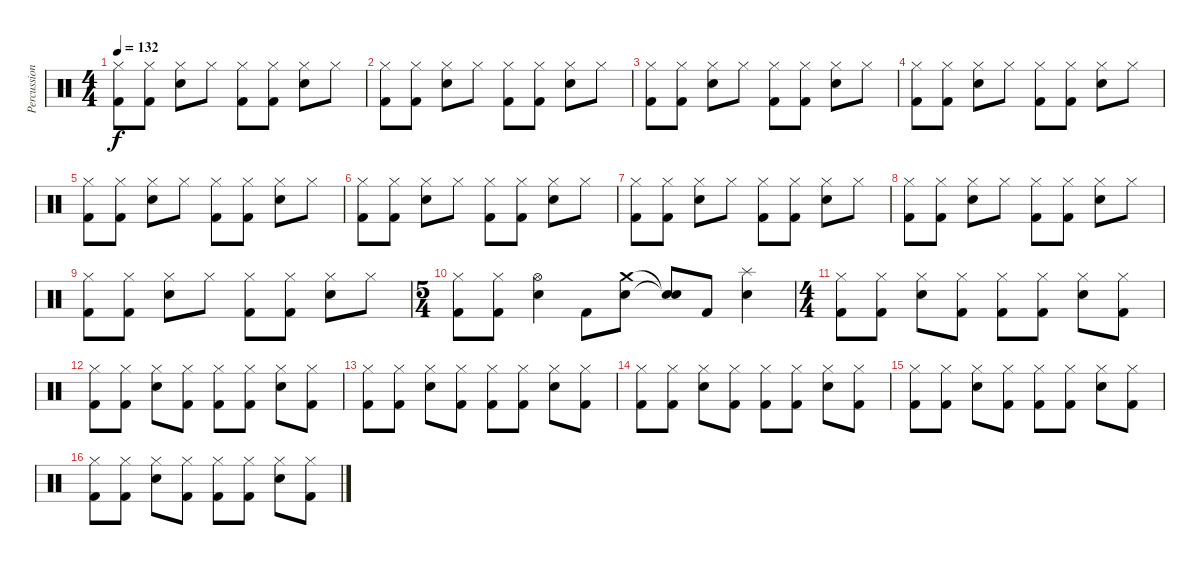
\track ("Percussion" "Percussion") {instrument percussion}
\staff {score}
\articulation defaults
\ts (4 4)
\tempo 132
\clef neutral
\ks c
("Hi-Hat (closed)" "Kick (hit) 2").8{dy f} ("Hi-Hat (closed)" "Kick (hit) 2").8 ("Hi-Hat (closed)" "Metronome (bell)").8 "Hi-Hat (closed)".8 ("Hi-Hat (closed)" "Kick (hit) 2").8 ("Hi-Hat (closed)" "Kick (hit) 2").8 ("Hi-Hat (closed)" "Metronome (bell)").8 "Hi-Hat (closed)".8 |
("Hi-Hat (closed)" "Kick (hit) 2").8 ("Hi-Hat (closed)" "Kick (hit) 2").8 ("Hi-Hat (closed)" "Metronome (bell)").8 "Hi-Hat (closed)".8 ("Hi-Hat (closed)" "Kick (hit) 2").8 ("Hi-Hat (closed)" "Kick (hit) 2").8 ("Hi-Hat (closed)" "Metronome (bell)").8 "Hi-Hat (closed)".8 |
("Hi-Hat (closed)" "Kick (hit) 2").8 ("Hi-Hat (closed)" "Kick (hit) 2").8 ("Hi-Hat (closed)" "Metronome (bell)").8 "Hi-Hat (closed)".8 ("Hi-Hat (closed)" "Kick (hit) 2").8 ("Hi-Hat (closed)" "Kick (hit) 2").8 ("Hi-Hat (closed)" "Metronome (bell)").8 "Hi-Hat (closed)".8 |
("Hi-Hat (closed)" "Kick (hit) 2").8 ("Hi-Hat (closed)" "Kick (hit) 2").8 ("Hi-Hat (closed)" "Metronome (bell)").8 "Hi-Hat (closed)".8 ("Hi-Hat (closed)" "Kick (hit) 2").8 ("Hi-Hat (closed)" "Kick (hit) 2").8 ("Hi-Hat (closed)" "Metronome (bell)").8 "Hi-Hat (closed)".8 |
("Hi-Hat (closed)" "Kick (hit) 2").8 ("Hi-Hat (closed)" "Kick (hit) 2").8 ("Hi-Hat (closed)" "Metronome (bell)").8 "Hi-Hat (closed)".8 ("Hi-Hat (closed)" "Kick (hit) 2").8 ("Hi-Hat (closed)" "Kick (hit) 2").8 ("Hi-Hat (closed)" "Metronome (bell)").8 "Hi-Hat (closed)".8 |
("Hi-Hat (closed)" "Kick (hit) 2").8 ("Hi-Hat (closed)" "Kick (hit) 2").8 ("Hi-Hat (closed)" "Metronome (bell)").8 "Hi-Hat (closed)".8 ("Hi-Hat (closed)" "Kick (hit) 2").8 ("Hi-Hat (closed)" "Kick (hit) 2").8 ("Hi-Hat (closed)" "Metronome (bell)").8 "Hi-Hat (closed)".8 |
("Hi-Hat (closed)" "Kick (hit) 2").8 ("Hi-Hat (closed)" "Kick (hit) 2").8 ("Hi-Hat (closed)" "Metronome (bell)").8 "Hi-Hat (closed)".8 ("Hi-Hat (closed)" "Kick (hit) 2").8 ("Hi-Hat (closed)" "Kick (hit) 2").8 ("Hi-Hat (closed)" "Metronome (bell)").8 "Hi-Hat (closed)".8 |
("Hi-Hat (closed)" "Kick (hit) 2").8 ("Hi-Hat (closed)" "Kick (hit) 2").8 ("Hi-Hat (closed)" "Metronome (bell)").8 "Hi-Hat (closed)".8 ("Hi-Hat (closed)" "Kick (hit) 2").8 ("Hi-Hat (closed)" "Kick (hit) 2").8 ("Hi-Hat (closed)" "Metronome (bell)").8 "Hi-Hat (closed)".8 |
("Hi-Hat (closed)" "Kick (hit) 2").8 ("Hi-Hat (closed)" "Kick (hit) 2").8 ("Hi-Hat (closed)" "Metronome (bell)").8 "Hi-Hat (closed)".8 ("Hi-Hat (closed)" "Kick (hit) 2").8 ("Hi-Hat (closed)" "Kick (hit) 2").8 ("Hi-Hat (closed)" "Metronome (bell)").8 "Hi-Hat (closed)".8 |
\ts (5 4)
("Hi-Hat (closed)" "Kick (hit) 2").8 ("Hi-Hat (closed)" "Kick (hit) 2").8 ("Hi-Hat (open)" "Metronome (bell)").4 "Kick (hit) 2".8 ("Crash medium (hit)" "Metronome (bell)").8 ("Snare (hit)"{t} "Snare (hit)"{t}).8 "Kick (hit) 2".8 ("Splash (hit)" "Metronome (bell)").4 |
\ts (4 4)
("Hi-Hat (closed)" "Kick (hit) 2").8 ("Hi-Hat (closed)" "Kick (hit) 2").8 ("Hi-Hat (closed)" "Metronome (bell)").8 ("Hi-Hat (closed)" "Kick (hit) 2").8 ("Hi-Hat (closed)" "Kick (hit) 2").8 ("Hi-Hat (closed)" "Kick (hit) 2").8 ("Hi-Hat (closed)" "Metronome (bell)").8 ("Hi-Hat (closed)" "Kick (hit) 2").8 |
("Hi-Hat (closed)" "Kick (hit) 2").8 ("Hi-Hat (closed)" "Kick (hit) 2").8 ("Hi-Hat (closed)" "Metronome (bell)").8 ("Hi-Hat (closed)" "Kick (hit) 2").8 ("Hi-Hat (closed)" "Kick (hit) 2").8 ("Hi-Hat (closed)" "Kick (hit) 2").8 ("Hi-Hat (closed)" "Metronome (bell)").8 ("Hi-Hat (closed)" "Kick (hit) 2").8 |
("Hi-Hat (closed)" "Kick (hit) 2").8 ("Hi-Hat (closed)" "Kick (hit) 2").8 ("Hi-Hat (closed)" "Metronome (bell)").8 ("Hi-Hat (closed)" "Kick (hit) 2").8 ("Hi-Hat (closed)" "Kick (hit) 2").8 ("Hi-Hat (closed)" "Kick (hit) 2").8 ("Hi-Hat (closed)" "Metronome (bell)").8 ("Hi-Hat (closed)" "Kick (hit) 2").8 |
("Hi-Hat (closed)" "Kick (hit) 2").8 ("Hi-Hat (closed)" "Kick (hit) 2").8 ("Hi-Hat (closed)" "Metronome (bell)").8 ("Hi-Hat (closed)" "Kick (hit) 2").8 ("Hi-Hat (closed)" "Kick (hit) 2").8 ("Hi-Hat (closed)" "Kick (hit) 2").8 ("Hi-Hat (closed)" "Metronome (bell)").8 ("Hi-Hat (closed)" "Kick (hit) 2").8 |
("Hi-Hat (closed)" "Kick (hit) 2").8 ("Hi-Hat (closed)" "Kick (hit) 2").8 ("Hi-Hat (closed)" "Metronome (bell)").8 ("Hi-Hat (closed)" "Kick (hit) 2").8 ("Hi-Hat (closed)" "Kick (hit) 2").8 ("Hi-Hat (closed)" "Kick (hit) 2").8 ("Hi-Hat (closed)" "Metronome (bell)").8 ("Hi-Hat (closed)" "Kick (hit) 2").8 |
("Hi-Hat (closed)" "Kick (hit) 2").8 ("Hi-Hat (closed)" "Kick (hit) 2").8 ("Hi-Hat (closed)" "Metronome (bell)").8 ("Hi-Hat (closed)" "Kick (hit) 2").8 ("Hi-Hat (closed)" "Kick (hit) 2").8 ("Hi-Hat (closed)" "Kick (hit) 2").8 ("Hi-Hat (closed)" "Metronome (bell)").8 ("Hi-Hat (closed)" "Kick (hit) 2").8
